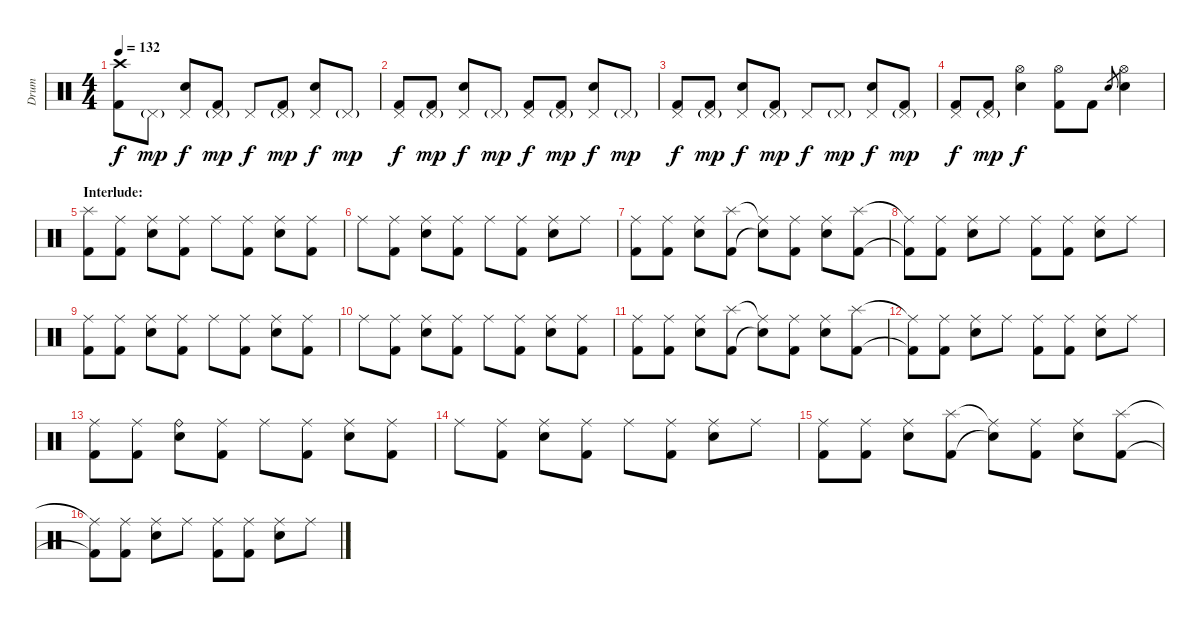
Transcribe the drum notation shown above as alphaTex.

\track ("Drum" "Drum") {instrument percussion}
\staff {score}
\articulation defaults
\ts (4 4)
\tempo 132
\clef neutral
\ks c
("Crash high (hit)" "Kick (hit) 2").8{dy f} "Pedal Hi-Hat (hit)"{g}.8{dy mp} ("Pedal Hi-Hat (hit)" "Snare (hit) 2").8{dy f} ("Pedal Hi-Hat (hit)"{g} "Kick (hit) 2").8{dy mp} "Pedal Hi-Hat (hit)".8{dy f} ("Pedal Hi-Hat (hit)"{g} "Kick (hit) 2").8{dy mp} ("Pedal Hi-Hat (hit)" "Snare (hit) 2").8{dy f} "Pedal Hi-Hat (hit)"{g}.8{dy mp} |
("Pedal Hi-Hat (hit)" "Kick (hit) 2").8{dy f} ("Pedal Hi-Hat (hit)"{g} "Kick (hit) 2").8{dy mp} ("Pedal Hi-Hat (hit)" "Snare (hit) 2").8{dy f} "Pedal Hi-Hat (hit)"{g}.8{dy mp} ("Pedal Hi-Hat (hit)" "Kick (hit) 2").8{dy f} ("Pedal Hi-Hat (hit)"{g} "Kick (hit) 2").8{dy mp} ("Pedal Hi-Hat (hit)" "Snare (hit) 2").8{dy f} "Pedal Hi-Hat (hit)"{g}.8{dy mp} |
("Pedal Hi-Hat (hit)" "Kick (hit) 2").8{dy f} ("Pedal Hi-Hat (hit)"{g} "Kick (hit) 2").8{dy mp} ("Pedal Hi-Hat (hit)" "Snare (hit) 2").8{dy f} ("Pedal Hi-Hat (hit)"{g} "Kick (hit) 2").8{dy mp} "Pedal Hi-Hat (hit)".8{dy f} "Pedal Hi-Hat (hit)"{g}.8{dy mp} ("Pedal Hi-Hat (hit)" "Snare (hit) 2").8{dy f} ("Pedal Hi-Hat (hit)"{g} "Kick (hit) 2").8{dy mp} |
("Pedal Hi-Hat (hit)" "Kick (hit) 2").8{dy f} ("Pedal Hi-Hat (hit)"{g} "Kick (hit) 2").8{dy mp} ("Hi-Hat (open)" "Snare (hit) 2").4{dy f} ("Hi-Hat (open)" "Kick (hit) 2").8 "Kick (hit) 2".8 "Snare (hit) 2".8{gr} ("Hi-Hat (open)" "Snare (hit) 2").4 |
\section ("" "Interlude:")
("Splash (hit)" "Kick (hit) 2").8 ("Ride (middle)" "Kick (hit) 2").8 ("Ride (middle)" "Snare (hit) 2").8 ("Ride (middle)" "Kick (hit) 2").8 "Ride (middle)".8 ("Ride (middle)" "Kick (hit) 2").8 ("Ride (middle)" "Snare (hit) 2").8 ("Ride (middle)" "Kick (hit) 2").8 |
"Ride (middle)".8 ("Ride (middle)" "Kick (hit) 2").8 ("Ride (middle)" "Snare (hit) 2").8 ("Ride (middle)" "Kick (hit) 2").8 "Ride (middle)".8 ("Ride (middle)" "Kick (hit) 2").8 ("Ride (middle)" "Snare (hit) 2").8 "Ride (middle)".8 |
("Ride (middle)" "Kick (hit) 2").8 ("Ride (middle)" "Kick (hit) 2").8 ("Ride (middle)" "Snare (hit) 2").8 ("Splash (hit)" "Kick (hit) 2").8 ("Ride (middle)"{t} "Snare (hit)"{t}).8 ("Ride (middle)" "Kick (hit) 2").8 ("Ride (middle)" "Snare (hit) 2").8 ("Splash (hit)" "Kick (hit) 2").8 |
("Ride (middle)"{t} "Kick (hit) 2"{t}).8 ("Ride (middle)" "Kick (hit) 2").8 ("Ride (middle)" "Snare (hit) 2").8 "Ride (middle)".8 ("Ride (middle)" "Kick (hit) 2").8 ("Ride (middle)" "Kick (hit) 2").8 ("Ride (middle)" "Snare (hit) 2").8 "Ride (middle)".8 |
("Ride (middle)" "Kick (hit) 2").8 ("Ride (middle)" "Kick (hit) 2").8 ("Ride (middle)" "Snare (hit) 2").8 ("Ride (middle)" "Kick (hit) 2").8 "Ride (middle)".8 ("Ride (middle)" "Kick (hit) 2").8 ("Ride (middle)" "Snare (hit) 2").8 ("Ride (middle)" "Kick (hit) 2").8 |
"Ride (middle)".8 ("Ride (middle)" "Kick (hit) 2").8 ("Ride (middle)" "Snare (hit) 2").8 ("Ride (middle)" "Kick (hit) 2").8 "Ride (middle)".8 ("Ride (middle)" "Kick (hit) 2").8 ("Ride (middle)" "Snare (hit) 2").8 ("Ride (middle)" "Kick (hit) 2").8 |
("Ride (middle)" "Kick (hit) 2").8 ("Ride (middle)" "Kick (hit) 2").8 ("Ride (middle)" "Snare (hit) 2").8 ("Splash (hit)" "Kick (hit) 2").8 ("Ride (middle)"{t} "Snare (hit)"{t}).8 ("Ride (middle)" "Kick (hit) 2").8 ("Ride (middle)" "Snare (hit) 2").8 ("Splash (hit)" "Kick (hit) 2").8 |
("Ride (middle)"{t} "Kick (hit) 2"{t}).8 ("Ride (middle)" "Kick (hit) 2").8 ("Ride (middle)" "Snare (hit) 2").8 "Ride (middle)".8 ("Ride (middle)" "Kick (hit) 2").8 ("Ride (middle)" "Kick (hit) 2").8 ("Ride (middle)" "Snare (hit) 2").8 "Ride (middle)".8 |
("Ride (middle)" "Kick (hit) 2").8 ("Ride (middle)" "Kick (hit) 2").8 ("Ride (bell)" "Snare (hit) 2").8 ("Ride (middle)" "Kick (hit) 2").8 "Ride (middle)".8 ("Ride (middle)" "Kick (hit) 2").8 ("Ride (middle)" "Snare (hit) 2").8 ("Ride (middle)" "Kick (hit) 2").8 |
"Ride (middle)".8 ("Ride (middle)" "Kick (hit) 2").8 ("Ride (middle)" "Snare (hit) 2").8 ("Ride (middle)" "Kick (hit) 2").8 "Ride (middle)".8 ("Ride (middle)" "Kick (hit) 2").8 ("Ride (middle)" "Snare (hit) 2").8 "Ride (middle)".8 |
("Ride (middle)" "Kick (hit) 2").8 ("Ride (middle)" "Kick (hit) 2").8 ("Ride (middle)" "Snare (hit) 2").8 ("Splash (hit)" "Kick (hit) 2").8 ("Ride (middle)"{t} "Snare (hit)"{t}).8 ("Ride (middle)" "Kick (hit) 2").8 ("Ride (middle)" "Snare (hit) 2").8 ("Splash (hit)" "Kick (hit) 2").8 |
("Ride (middle)"{t} "Kick (hit) 2"{t}).8 ("Ride (middle)" "Kick (hit) 2").8 ("Ride (middle)" "Snare (hit) 2").8 "Ride (middle)".8 ("Ride (middle)" "Kick (hit) 2").8 ("Ride (middle)" "Kick (hit) 2").8 ("Ride (middle)" "Snare (hit) 2").8 "Ride (middle)".8
